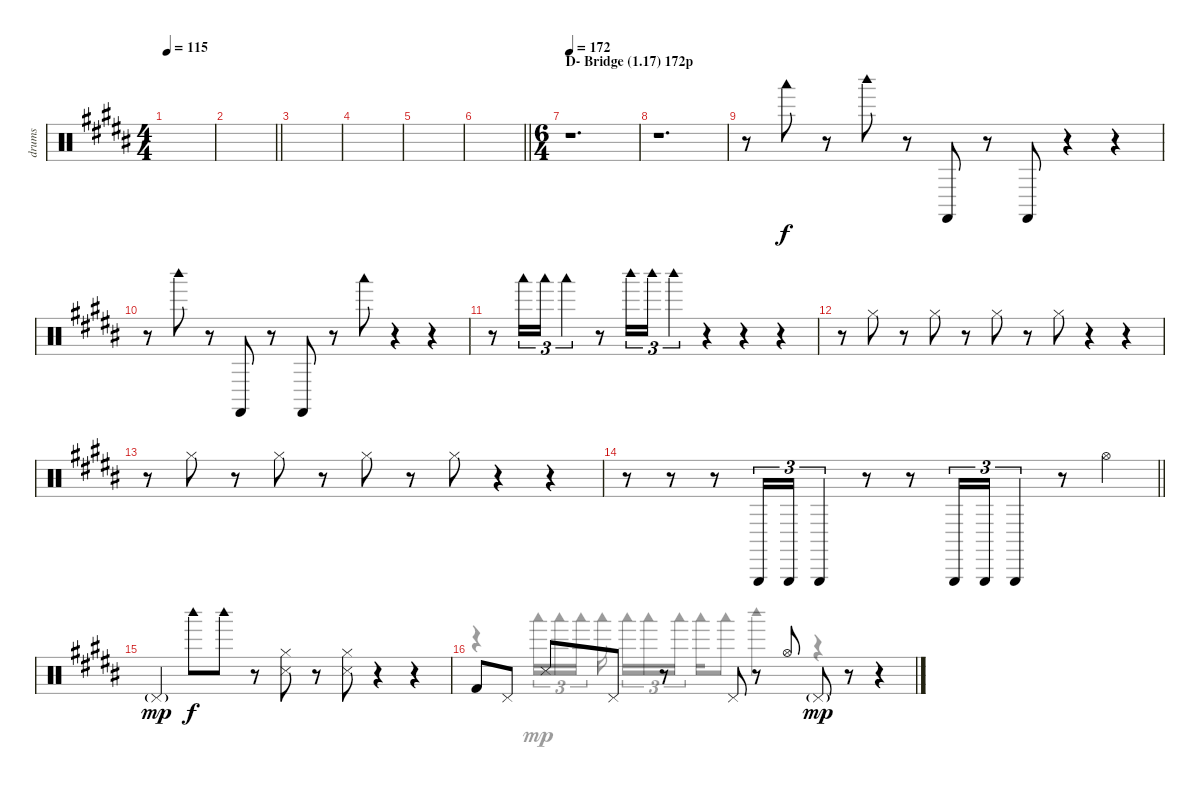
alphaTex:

\track ("drums" "drums") {instrument percussion}
\staff {score}
\articulation defaults
\voice
\ts (4 4)
\tempo 115
\clef neutral
\ks b
|
\barLineRight lightlight
\ks g#minor
|
\ks b
|
\ks g#minor
|
|
\barLineRight lightlight
|
\ts (6 4)
\section ("" "D- Bridge (1.17) 172p")
\tempo 172
r.1{d} |
r.1{d} |
\ks b
r.8 "Woodblock low (hit)".8 r.8 "Woodblock high (hit)".8 r.8 "Castanets (hit)".8 r.8 "Castanets (hit)".8 r.4 r.4 |
\ks g#minor
r.8 "Woodblock high (hit)".8 r.8 "Castanets (hit)".8 r.8 "Castanets (hit)".8 r.8 "Woodblock low (hit)".8 r.4 r.4 |
\ks b
r.8 "Woodblock low (hit)".16{tu (3 2)} "Woodblock low (hit)".16{tu (3 2)} "Woodblock low (hit)".4{tu (3 2)} r.8 "Woodblock high (hit)".16{tu (3 2)} "Woodblock high (hit)".16{tu (3 2)} "Woodblock high (hit)".4{tu (3 2)} r.4 r.4 r.4 |
\ks g#minor
r.8 "Hi-Hat (closed)".8 r.8 "Hi-Hat (closed)".8 r.8 "Hi-Hat (closed)".8 r.8 "Hi-Hat (closed)".8 r.4 r.4 |
\ks b
r.8 "Hi-Hat (closed)".8 r.8 "Hi-Hat (closed)".8 r.8 "Hi-Hat (closed)".8 r.8 "Hi-Hat (closed)".8 r.4 r.4 |
\barLineRight lightlight
\ks g#minor
r.8 r.8 r.8 "Triangle (hit)".16{tu (3 2)} "Triangle (hit)".16{tu (3 2)} "Triangle (hit)".4{tu (3 2)} r.8 r.8 "Triangle (hit)".16{tu (3 2)} "Triangle (hit)".16{tu (3 2)} "Triangle (hit)".4{tu (3 2)} r.8 "Hi-Hat (open)".4 |
"Pedal Hi-Hat (hit)"{g}.4{dy mp} "Woodblock high (hit)".8{dy f} "Woodblock high (hit)".8 r.8 ("Hi-Hat (closed)" "Snare (side stick) 3").8 r.8 ("Hi-Hat (closed)" "Snare (side stick) 3").8 r.4 r.4 |
"Kick (hit) 2".8 "Pedal Hi-Hat (hit)".8 "Snare (side stick) 3".8 "Pedal Hi-Hat (hit)".8 r.8 "Pedal Hi-Hat (hit)".8 r.8 "Hi-Hat (open)".8 "Pedal Hi-Hat (hit)"{g}.8{dy mp} r.8 r.4
\voice
\clef neutral
\ottava regular
\simile none
\ks b
|
\barLineRight lightlight
\ks g#minor
|
\ks b
|
\ks g#minor
|
|
\barLineRight lightlight
|
|
|
\ks b
|
\ks g#minor
|
\ks b
|
\ks g#minor
|
\ks b
|
\barLineRight lightlight
\ks g#minor
|
|
r.4 "Woodblock low (hit)".16{tu (3 2)} "Woodblock low (hit)".16{tu (3 2)} "Woodblock low (hit)".16{tu (3 2) beam splitsecondary} "Woodblock low (hit)".16{beam splitsecondary} "Woodblock low (hit)".16{tu (3 2)} "Woodblock low (hit)".16{tu (3 2)} "Woodblock low (hit)".16{tu (3 2) beam splitsecondary} "Woodblock low (hit)".16 "Woodblock low (hit)".8 "Woodblock high (hit)".4 r.4 r.4
